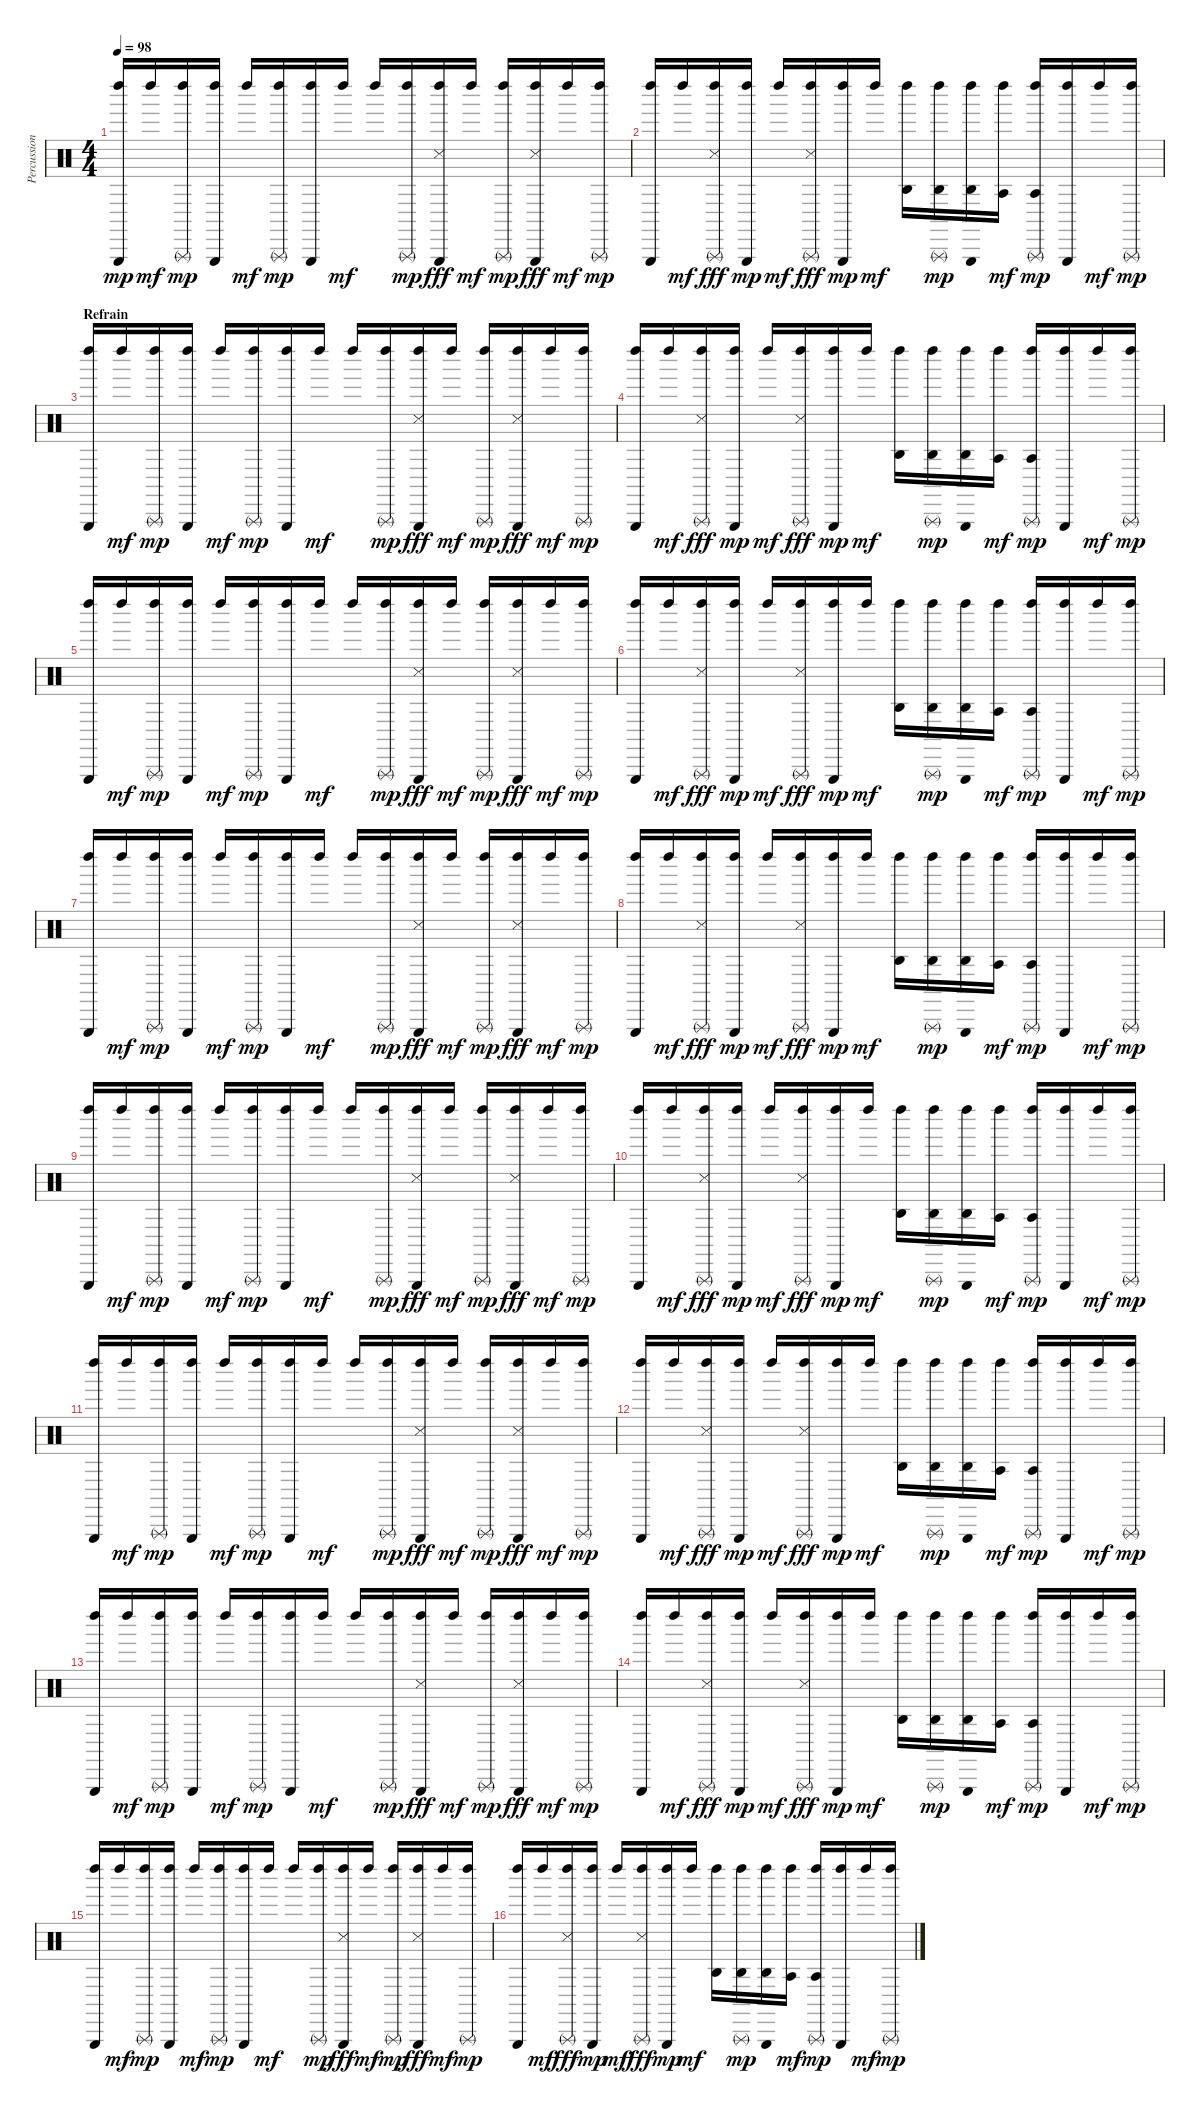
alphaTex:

\track ("Percussions" "Percussion") {instrument percussion}
\staff {score}
\articulation defaults
\ts (4 4)
\tempo 98
\clef neutral
\ks c
("Left Maraca (hit)" "Triangle (hit)").16{dy mp} "Left Maraca (hit)".16{dy mf} ("Left Maraca (hit)" "Triangle (rnute)").16{dy mp} ("Left Maraca (hit)" "Triangle (hit)").16 "Left Maraca (hit)".16{dy mf} ("Left Maraca (hit)" "Triangle (rnute)").16{dy mp} ("Left Maraca (hit)" "Triangle (hit)").16 "Left Maraca (hit)".16{dy mf} "Left Maraca (hit)".16 ("Left Maraca (hit)" "Triangle (rnute)").16{dy mp} ("Left Maraca (hit)" "Triangle (hit)" "Snare (side stick) 3").16{dy fff} "Left Maraca (hit)".16{dy mf} ("Left Maraca (hit)" "Triangle (rnute)").16{dy mp} ("Left Maraca (hit)" "Triangle (hit)" "Snare (side stick) 3").16{dy fff} "Left Maraca (hit)".16{dy mf} ("Left Maraca (hit)" "Triangle (rnute)").16{dy mp} |
("Left Maraca (hit)" "Triangle (hit)").16 "Left Maraca (hit)".16{dy mf} ("Left Maraca (hit)" "Triangle (rnute)" "Snare (side stick) 3").16{dy fff} ("Left Maraca (hit)" "Triangle (hit)").16{dy mp} "Left Maraca (hit)".16{dy mf} ("Left Maraca (hit)" "Triangle (rnute)" "Snare (side stick) 3").16{dy fff} ("Left Maraca (hit)" "Triangle (hit)").16{dy mp} "Left Maraca (hit)".16{dy mf} ("Left Maraca (hit)" "Agogo high (hit)").16 ("Left Maraca (hit)" "Triangle (rnute)" "Agogo high (hit)").16{dy mp} ("Left Maraca (hit)" "Triangle (hit)" "Agogo high (hit)").16 ("Left Maraca (hit)" "Agogo tow (hit)").16{dy mf} ("Left Maraca (hit)" "Triangle (rnute)" "Agogo tow (hit)").16{dy mp} ("Left Maraca (hit)" "Triangle (hit)").16 "Left Maraca (hit)".16{dy mf} ("Left Maraca (hit)" "Triangle (rnute)").16{dy mp} |
\section ("" "Refrain")
("Left Maraca (hit)" "Triangle (hit)").16 "Left Maraca (hit)".16{dy mf} ("Left Maraca (hit)" "Triangle (rnute)").16{dy mp} ("Left Maraca (hit)" "Triangle (hit)").16 "Left Maraca (hit)".16{dy mf} ("Left Maraca (hit)" "Triangle (rnute)").16{dy mp} ("Left Maraca (hit)" "Triangle (hit)").16 "Left Maraca (hit)".16{dy mf} "Left Maraca (hit)".16 ("Left Maraca (hit)" "Triangle (rnute)").16{dy mp} ("Left Maraca (hit)" "Triangle (hit)" "Snare (side stick) 3").16{dy fff} "Left Maraca (hit)".16{dy mf} ("Left Maraca (hit)" "Triangle (rnute)").16{dy mp} ("Left Maraca (hit)" "Triangle (hit)" "Snare (side stick) 3").16{dy fff} "Left Maraca (hit)".16{dy mf} ("Left Maraca (hit)" "Triangle (rnute)").16{dy mp} |
("Left Maraca (hit)" "Triangle (hit)").16 "Left Maraca (hit)".16{dy mf} ("Left Maraca (hit)" "Triangle (rnute)" "Snare (side stick) 3").16{dy fff} ("Left Maraca (hit)" "Triangle (hit)").16{dy mp} "Left Maraca (hit)".16{dy mf} ("Left Maraca (hit)" "Triangle (rnute)" "Snare (side stick) 3").16{dy fff} ("Left Maraca (hit)" "Triangle (hit)").16{dy mp} "Left Maraca (hit)".16{dy mf} ("Left Maraca (hit)" "Agogo high (hit)").16 ("Left Maraca (hit)" "Triangle (rnute)" "Agogo high (hit)").16{dy mp} ("Left Maraca (hit)" "Triangle (hit)" "Agogo high (hit)").16 ("Left Maraca (hit)" "Agogo tow (hit)").16{dy mf} ("Left Maraca (hit)" "Triangle (rnute)" "Agogo tow (hit)").16{dy mp} ("Left Maraca (hit)" "Triangle (hit)").16 "Left Maraca (hit)".16{dy mf} ("Left Maraca (hit)" "Triangle (rnute)").16{dy mp} |
("Left Maraca (hit)" "Triangle (hit)").16 "Left Maraca (hit)".16{dy mf} ("Left Maraca (hit)" "Triangle (rnute)").16{dy mp} ("Left Maraca (hit)" "Triangle (hit)").16 "Left Maraca (hit)".16{dy mf} ("Left Maraca (hit)" "Triangle (rnute)").16{dy mp} ("Left Maraca (hit)" "Triangle (hit)").16 "Left Maraca (hit)".16{dy mf} "Left Maraca (hit)".16 ("Left Maraca (hit)" "Triangle (rnute)").16{dy mp} ("Left Maraca (hit)" "Triangle (hit)" "Snare (side stick) 3").16{dy fff} "Left Maraca (hit)".16{dy mf} ("Left Maraca (hit)" "Triangle (rnute)").16{dy mp} ("Left Maraca (hit)" "Triangle (hit)" "Snare (side stick) 3").16{dy fff} "Left Maraca (hit)".16{dy mf} ("Left Maraca (hit)" "Triangle (rnute)").16{dy mp} |
("Left Maraca (hit)" "Triangle (hit)").16 "Left Maraca (hit)".16{dy mf} ("Left Maraca (hit)" "Triangle (rnute)" "Snare (side stick) 3").16{dy fff} ("Left Maraca (hit)" "Triangle (hit)").16{dy mp} "Left Maraca (hit)".16{dy mf} ("Left Maraca (hit)" "Triangle (rnute)" "Snare (side stick) 3").16{dy fff} ("Left Maraca (hit)" "Triangle (hit)").16{dy mp} "Left Maraca (hit)".16{dy mf} ("Left Maraca (hit)" "Agogo high (hit)").16 ("Left Maraca (hit)" "Triangle (rnute)" "Agogo high (hit)").16{dy mp} ("Left Maraca (hit)" "Triangle (hit)" "Agogo high (hit)").16 ("Left Maraca (hit)" "Agogo tow (hit)").16{dy mf} ("Left Maraca (hit)" "Triangle (rnute)" "Agogo tow (hit)").16{dy mp} ("Left Maraca (hit)" "Triangle (hit)").16 "Left Maraca (hit)".16{dy mf} ("Left Maraca (hit)" "Triangle (rnute)").16{dy mp} |
("Left Maraca (hit)" "Triangle (hit)").16 "Left Maraca (hit)".16{dy mf} ("Left Maraca (hit)" "Triangle (rnute)").16{dy mp} ("Left Maraca (hit)" "Triangle (hit)").16 "Left Maraca (hit)".16{dy mf} ("Left Maraca (hit)" "Triangle (rnute)").16{dy mp} ("Left Maraca (hit)" "Triangle (hit)").16 "Left Maraca (hit)".16{dy mf} "Left Maraca (hit)".16 ("Left Maraca (hit)" "Triangle (rnute)").16{dy mp} ("Left Maraca (hit)" "Triangle (hit)" "Snare (side stick) 3").16{dy fff} "Left Maraca (hit)".16{dy mf} ("Left Maraca (hit)" "Triangle (rnute)").16{dy mp} ("Left Maraca (hit)" "Triangle (hit)" "Snare (side stick) 3").16{dy fff} "Left Maraca (hit)".16{dy mf} ("Left Maraca (hit)" "Triangle (rnute)").16{dy mp} |
("Left Maraca (hit)" "Triangle (hit)").16 "Left Maraca (hit)".16{dy mf} ("Left Maraca (hit)" "Triangle (rnute)" "Snare (side stick) 3").16{dy fff} ("Left Maraca (hit)" "Triangle (hit)").16{dy mp} "Left Maraca (hit)".16{dy mf} ("Left Maraca (hit)" "Triangle (rnute)" "Snare (side stick) 3").16{dy fff} ("Left Maraca (hit)" "Triangle (hit)").16{dy mp} "Left Maraca (hit)".16{dy mf} ("Left Maraca (hit)" "Agogo high (hit)").16 ("Left Maraca (hit)" "Triangle (rnute)" "Agogo high (hit)").16{dy mp} ("Left Maraca (hit)" "Triangle (hit)" "Agogo high (hit)").16 ("Left Maraca (hit)" "Agogo tow (hit)").16{dy mf} ("Left Maraca (hit)" "Triangle (rnute)" "Agogo tow (hit)").16{dy mp} ("Left Maraca (hit)" "Triangle (hit)").16 "Left Maraca (hit)".16{dy mf} ("Left Maraca (hit)" "Triangle (rnute)").16{dy mp} |
("Left Maraca (hit)" "Triangle (hit)").16 "Left Maraca (hit)".16{dy mf} ("Left Maraca (hit)" "Triangle (rnute)").16{dy mp} ("Left Maraca (hit)" "Triangle (hit)").16 "Left Maraca (hit)".16{dy mf} ("Left Maraca (hit)" "Triangle (rnute)").16{dy mp} ("Left Maraca (hit)" "Triangle (hit)").16 "Left Maraca (hit)".16{dy mf} "Left Maraca (hit)".16 ("Left Maraca (hit)" "Triangle (rnute)").16{dy mp} ("Left Maraca (hit)" "Triangle (hit)" "Snare (side stick) 3").16{dy fff} "Left Maraca (hit)".16{dy mf} ("Left Maraca (hit)" "Triangle (rnute)").16{dy mp} ("Left Maraca (hit)" "Triangle (hit)" "Snare (side stick) 3").16{dy fff} "Left Maraca (hit)".16{dy mf} ("Left Maraca (hit)" "Triangle (rnute)").16{dy mp} |
("Left Maraca (hit)" "Triangle (hit)").16 "Left Maraca (hit)".16{dy mf} ("Left Maraca (hit)" "Triangle (rnute)" "Snare (side stick) 3").16{dy fff} ("Left Maraca (hit)" "Triangle (hit)").16{dy mp} "Left Maraca (hit)".16{dy mf} ("Left Maraca (hit)" "Triangle (rnute)" "Snare (side stick) 3").16{dy fff} ("Left Maraca (hit)" "Triangle (hit)").16{dy mp} "Left Maraca (hit)".16{dy mf} ("Left Maraca (hit)" "Agogo high (hit)").16 ("Left Maraca (hit)" "Triangle (rnute)" "Agogo high (hit)").16{dy mp} ("Left Maraca (hit)" "Triangle (hit)" "Agogo high (hit)").16 ("Left Maraca (hit)" "Agogo tow (hit)").16{dy mf} ("Left Maraca (hit)" "Triangle (rnute)" "Agogo tow (hit)").16{dy mp} ("Left Maraca (hit)" "Triangle (hit)").16 "Left Maraca (hit)".16{dy mf} ("Left Maraca (hit)" "Triangle (rnute)").16{dy mp} |
("Left Maraca (hit)" "Triangle (hit)").16 "Left Maraca (hit)".16{dy mf} ("Left Maraca (hit)" "Triangle (rnute)").16{dy mp} ("Left Maraca (hit)" "Triangle (hit)").16 "Left Maraca (hit)".16{dy mf} ("Left Maraca (hit)" "Triangle (rnute)").16{dy mp} ("Left Maraca (hit)" "Triangle (hit)").16 "Left Maraca (hit)".16{dy mf} "Left Maraca (hit)".16 ("Left Maraca (hit)" "Triangle (rnute)").16{dy mp} ("Left Maraca (hit)" "Triangle (hit)" "Snare (side stick) 3").16{dy fff} "Left Maraca (hit)".16{dy mf} ("Left Maraca (hit)" "Triangle (rnute)").16{dy mp} ("Left Maraca (hit)" "Triangle (hit)" "Snare (side stick) 3").16{dy fff} "Left Maraca (hit)".16{dy mf} ("Left Maraca (hit)" "Triangle (rnute)").16{dy mp} |
("Left Maraca (hit)" "Triangle (hit)").16 "Left Maraca (hit)".16{dy mf} ("Left Maraca (hit)" "Triangle (rnute)" "Snare (side stick) 3").16{dy fff} ("Left Maraca (hit)" "Triangle (hit)").16{dy mp} "Left Maraca (hit)".16{dy mf} ("Left Maraca (hit)" "Triangle (rnute)" "Snare (side stick) 3").16{dy fff} ("Left Maraca (hit)" "Triangle (hit)").16{dy mp} "Left Maraca (hit)".16{dy mf} ("Left Maraca (hit)" "Agogo high (hit)").16 ("Left Maraca (hit)" "Triangle (rnute)" "Agogo high (hit)").16{dy mp} ("Left Maraca (hit)" "Triangle (hit)" "Agogo high (hit)").16 ("Left Maraca (hit)" "Agogo tow (hit)").16{dy mf} ("Left Maraca (hit)" "Triangle (rnute)" "Agogo tow (hit)").16{dy mp} ("Left Maraca (hit)" "Triangle (hit)").16 "Left Maraca (hit)".16{dy mf} ("Left Maraca (hit)" "Triangle (rnute)").16{dy mp} |
("Left Maraca (hit)" "Triangle (hit)").16 "Left Maraca (hit)".16{dy mf} ("Left Maraca (hit)" "Triangle (rnute)").16{dy mp} ("Left Maraca (hit)" "Triangle (hit)").16 "Left Maraca (hit)".16{dy mf} ("Left Maraca (hit)" "Triangle (rnute)").16{dy mp} ("Left Maraca (hit)" "Triangle (hit)").16 "Left Maraca (hit)".16{dy mf} "Left Maraca (hit)".16 ("Left Maraca (hit)" "Triangle (rnute)").16{dy mp} ("Left Maraca (hit)" "Triangle (hit)" "Snare (side stick) 3").16{dy fff} "Left Maraca (hit)".16{dy mf} ("Left Maraca (hit)" "Triangle (rnute)").16{dy mp} ("Left Maraca (hit)" "Triangle (hit)" "Snare (side stick) 3").16{dy fff} "Left Maraca (hit)".16{dy mf} ("Left Maraca (hit)" "Triangle (rnute)").16{dy mp} |
("Left Maraca (hit)" "Triangle (hit)").16 "Left Maraca (hit)".16{dy mf} ("Left Maraca (hit)" "Triangle (rnute)" "Snare (side stick) 3").16{dy fff} ("Left Maraca (hit)" "Triangle (hit)").16{dy mp} "Left Maraca (hit)".16{dy mf} ("Left Maraca (hit)" "Triangle (rnute)" "Snare (side stick) 3").16{dy fff} ("Left Maraca (hit)" "Triangle (hit)").16{dy mp} "Left Maraca (hit)".16{dy mf} ("Left Maraca (hit)" "Agogo high (hit)").16 ("Left Maraca (hit)" "Triangle (rnute)" "Agogo high (hit)").16{dy mp} ("Left Maraca (hit)" "Triangle (hit)" "Agogo high (hit)").16 ("Left Maraca (hit)" "Agogo tow (hit)").16{dy mf} ("Left Maraca (hit)" "Triangle (rnute)" "Agogo tow (hit)").16{dy mp} ("Left Maraca (hit)" "Triangle (hit)").16 "Left Maraca (hit)".16{dy mf} ("Left Maraca (hit)" "Triangle (rnute)").16{dy mp} |
("Left Maraca (hit)" "Triangle (hit)").16 "Left Maraca (hit)".16{dy mf} ("Left Maraca (hit)" "Triangle (rnute)").16{dy mp} ("Left Maraca (hit)" "Triangle (hit)").16 "Left Maraca (hit)".16{dy mf} ("Left Maraca (hit)" "Triangle (rnute)").16{dy mp} ("Left Maraca (hit)" "Triangle (hit)").16 "Left Maraca (hit)".16{dy mf} "Left Maraca (hit)".16 ("Left Maraca (hit)" "Triangle (rnute)").16{dy mp} ("Left Maraca (hit)" "Triangle (hit)" "Snare (side stick) 3").16{dy fff} "Left Maraca (hit)".16{dy mf} ("Left Maraca (hit)" "Triangle (rnute)").16{dy mp} ("Left Maraca (hit)" "Triangle (hit)" "Snare (side stick) 3").16{dy fff} "Left Maraca (hit)".16{dy mf} ("Left Maraca (hit)" "Triangle (rnute)").16{dy mp} |
("Left Maraca (hit)" "Triangle (hit)").16 "Left Maraca (hit)".16{dy mf} ("Left Maraca (hit)" "Triangle (rnute)" "Snare (side stick) 3").16{dy fff} ("Left Maraca (hit)" "Triangle (hit)").16{dy mp} "Left Maraca (hit)".16{dy mf} ("Left Maraca (hit)" "Triangle (rnute)" "Snare (side stick) 3").16{dy fff} ("Left Maraca (hit)" "Triangle (hit)").16{dy mp} "Left Maraca (hit)".16{dy mf} ("Left Maraca (hit)" "Agogo high (hit)").16 ("Left Maraca (hit)" "Triangle (rnute)" "Agogo high (hit)").16{dy mp} ("Left Maraca (hit)" "Triangle (hit)" "Agogo high (hit)").16 ("Left Maraca (hit)" "Agogo tow (hit)").16{dy mf} ("Left Maraca (hit)" "Triangle (rnute)" "Agogo tow (hit)").16{dy mp} ("Left Maraca (hit)" "Triangle (hit)").16 "Left Maraca (hit)".16{dy mf} ("Left Maraca (hit)" "Triangle (rnute)").16{dy mp}
